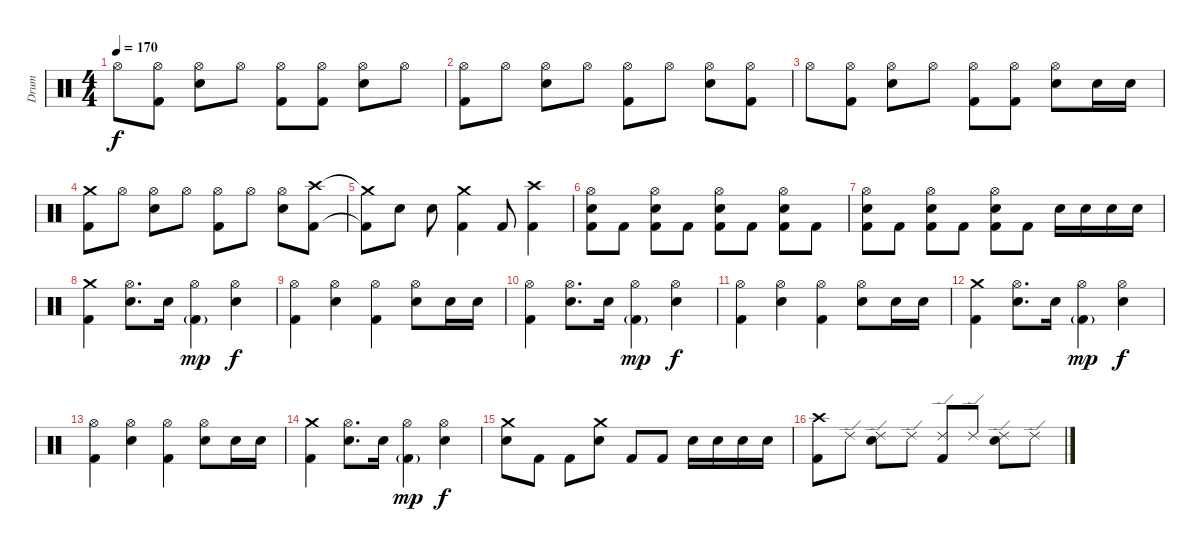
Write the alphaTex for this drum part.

\track ("Drum" "Drum") {instrument percussion}
\staff {score}
\articulation defaults
\ts (4 4)
\tempo 170
\clef neutral
\ks c "Hi-Hat (open)".8{dy f}
("Kick (hit) 2" "Hi-Hat (open)").8 ("Electric Snare (hit)" "Hi-Hat (open)").8 "Hi-Hat (open)".8 ("Kick (hit) 2" "Hi-Hat (open)").8 ("Kick (hit) 2" "Hi-Hat (open)").8 ("Electric Snare (hit)" "Hi-Hat (open)").8 "Hi-Hat (open)".8 |
("Kick (hit) 2" "Hi-Hat (open)").8 "Hi-Hat (open)".8 ("Electric Snare (hit)" "Hi-Hat (open)").8 "Hi-Hat (open)".8 ("Kick (hit) 2" "Hi-Hat (open)").8 "Hi-Hat (open)".8 ("Electric Snare (hit)" "Hi-Hat (open)").8 ("Kick (hit) 2" "Hi-Hat (open)").8 |
"Hi-Hat (open)".8 ("Kick (hit) 2" "Hi-Hat (open)").8 ("Electric Snare (hit)" "Hi-Hat (open)").8 "Hi-Hat (open)".8 ("Kick (hit) 2" "Hi-Hat (open)").8 ("Kick (hit) 2" "Hi-Hat (open)").8 ("Electric Snare (hit)" "Hi-Hat (open)").8 "Electric Snare (hit)".16 "Electric Snare (hit)".16 |
("Kick (hit) 2" "Crash medium (hit)").8 "Hi-Hat (open)".8 ("Electric Snare (hit)" "Hi-Hat (open)").8 "Hi-Hat (open)".8 ("Kick (hit) 2" "Hi-Hat (open)").8 "Hi-Hat (open)".8 ("Electric Snare (hit)" "Hi-Hat (open)").8 ("Kick (hit) 2" "Crash high (hit)").8 |
("Kick (hit) 2"{t} "Crash medium (hit)"{t}).8 "Electric Snare (hit)".8 "Electric Snare (hit)".8 ("Kick (hit) 2" "Crash medium (hit)").4 "Kick (hit) 2".8 ("Crash high (hit)" "Kick (hit) 2").4 |
("Kick (hit) 2" "Electric Snare (hit)" "Hi-Hat (open)").8 "Kick (hit) 2".8 ("Kick (hit) 2" "Electric Snare (hit)" "Hi-Hat (open)").8 "Kick (hit) 2".8 ("Kick (hit) 2" "Electric Snare (hit)" "Hi-Hat (open)").8 "Kick (hit) 2".8 ("Kick (hit) 2" "Electric Snare (hit)" "Hi-Hat (open)").8 "Kick (hit) 2".8 |
("Kick (hit) 2" "Electric Snare (hit)" "Hi-Hat (open)").8 "Kick (hit) 2".8 ("Kick (hit) 2" "Electric Snare (hit)" "Hi-Hat (open)").8 "Kick (hit) 2".8 ("Kick (hit) 2" "Electric Snare (hit)" "Hi-Hat (open)").8 "Kick (hit) 2".8 "Electric Snare (hit)".16 "Electric Snare (hit)".16 "Electric Snare (hit)".16 "Electric Snare (hit)".16 |
("Crash medium (hit)" "Kick (hit) 2").4 ("Hi-Hat (open)" "Electric Snare (hit)").8{d} "Electric Snare (hit)".16 ("Hi-Hat (open)" "Kick (hit) 2"{g}).4{dy mp} ("Hi-Hat (open)" "Electric Snare (hit)").4{dy f} |
("Hi-Hat (open)" "Kick (hit) 2").4 ("Hi-Hat (open)" "Electric Snare (hit)").4 ("Hi-Hat (open)" "Kick (hit) 2").4 ("Hi-Hat (open)" "Electric Snare (hit)").8 "Electric Snare (hit)".16 "Electric Snare (hit)".16 |
("Hi-Hat (open)" "Kick (hit) 2").4 ("Hi-Hat (open)" "Electric Snare (hit)").8{d} "Electric Snare (hit)".16 ("Hi-Hat (open)" "Kick (hit) 2"{g}).4{dy mp} ("Hi-Hat (open)" "Electric Snare (hit)").4{dy f} |
("Hi-Hat (open)" "Kick (hit) 2").4 ("Hi-Hat (open)" "Electric Snare (hit)").4 ("Hi-Hat (open)" "Kick (hit) 2").4 ("Hi-Hat (open)" "Electric Snare (hit)").8 "Electric Snare (hit)".16 "Electric Snare (hit)".16 |
("Crash medium (hit)" "Kick (hit) 2").4 ("Hi-Hat (open)" "Electric Snare (hit)").8{d} "Electric Snare (hit)".16 ("Hi-Hat (open)" "Kick (hit) 2"{g}).4{dy mp} ("Hi-Hat (open)" "Electric Snare (hit)").4{dy f} |
("Hi-Hat (open)" "Kick (hit) 2").4 ("Hi-Hat (open)" "Electric Snare (hit)").4 ("Hi-Hat (open)" "Kick (hit) 2").4 ("Hi-Hat (open)" "Electric Snare (hit)").8 "Electric Snare (hit)".16 "Electric Snare (hit)".16 |
("Crash medium (hit)" "Kick (hit) 2").4 ("Hi-Hat (open)" "Electric Snare (hit)").8{d} "Electric Snare (hit)".16 ("Hi-Hat (open)" "Kick (hit) 2"{g}).4{dy mp} ("Hi-Hat (open)" "Electric Snare (hit)").4{dy f} |
("Electric Snare (hit)" "Crash medium (hit)").8 "Kick (hit) 2".8 "Kick (hit) 2".8 ("Electric Snare (hit)" "Crash medium (hit)").8 "Kick (hit) 2".8 "Kick (hit) 2".8 "Electric Snare (hit)".16 "Electric Snare (hit)".16 "Electric Snare (hit)".16 "Electric Snare (hit)".16 |
("Crash high (hit)" "Kick (hit) 2").8 "Ride (edge) 2".8 ("Electric Snare (hit)" "Ride (edge) 2").8 "Ride (edge) 2".8 ("Kick (hit) 2" "Ride (edge) 2").8 "Ride (edge) 2".8 ("Electric Snare (hit)" "Ride (edge) 2").8 "Ride (edge) 2".8
